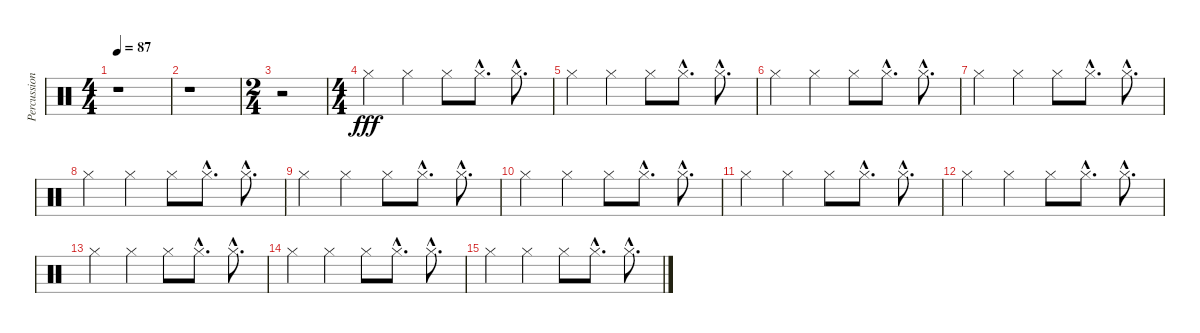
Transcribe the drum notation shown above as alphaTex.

\track ("Percussions" "Percussion") {instrument percussion}
\staff {score}
\articulation defaults
\ts (4 4)
\tempo 87
\clef neutral
\ks c
r.1{dy f} |
r.1 |
\ts (2 4)
r.2 |
\ts (4 4)
"Hi-Hat (closed)".4{dy fff} "Hi-Hat (closed)".4 "Hi-Hat (closed)".8 "Hi-Hat (closed)"{hac}.8{d} "Hi-Hat (closed)"{hac}.8{d} |
"Hi-Hat (closed)".4 "Hi-Hat (closed)".4 "Hi-Hat (closed)".8 "Hi-Hat (closed)"{hac}.8{d} "Hi-Hat (closed)"{hac}.8{d} |
"Hi-Hat (closed)".4 "Hi-Hat (closed)".4 "Hi-Hat (closed)".8 "Hi-Hat (closed)"{hac}.8{d} "Hi-Hat (closed)"{hac}.8{d} |
"Hi-Hat (closed)".4 "Hi-Hat (closed)".4 "Hi-Hat (closed)".8 "Hi-Hat (closed)"{hac}.8{d} "Hi-Hat (closed)"{hac}.8{d} |
"Hi-Hat (closed)".4 "Hi-Hat (closed)".4 "Hi-Hat (closed)".8 "Hi-Hat (closed)"{hac}.8{d} "Hi-Hat (closed)"{hac}.8{d} |
"Hi-Hat (closed)".4 "Hi-Hat (closed)".4 "Hi-Hat (closed)".8 "Hi-Hat (closed)"{hac}.8{d} "Hi-Hat (closed)"{hac}.8{d} |
"Hi-Hat (closed)".4 "Hi-Hat (closed)".4 "Hi-Hat (closed)".8 "Hi-Hat (closed)"{hac}.8{d} "Hi-Hat (closed)"{hac}.8{d} |
"Hi-Hat (closed)".4 "Hi-Hat (closed)".4 "Hi-Hat (closed)".8 "Hi-Hat (closed)"{hac}.8{d} "Hi-Hat (closed)"{hac}.8{d} |
"Hi-Hat (closed)".4 "Hi-Hat (closed)".4 "Hi-Hat (closed)".8 "Hi-Hat (closed)"{hac}.8{d} "Hi-Hat (closed)"{hac}.8{d} |
"Hi-Hat (closed)".4 "Hi-Hat (closed)".4 "Hi-Hat (closed)".8 "Hi-Hat (closed)"{hac}.8{d} "Hi-Hat (closed)"{hac}.8{d} |
"Hi-Hat (closed)".4 "Hi-Hat (closed)".4 "Hi-Hat (closed)".8 "Hi-Hat (closed)"{hac}.8{d} "Hi-Hat (closed)"{hac}.8{d} |
"Hi-Hat (closed)".4 "Hi-Hat (closed)".4 "Hi-Hat (closed)".8 "Hi-Hat (closed)"{hac}.8{d} "Hi-Hat (closed)"{hac}.8{d}
